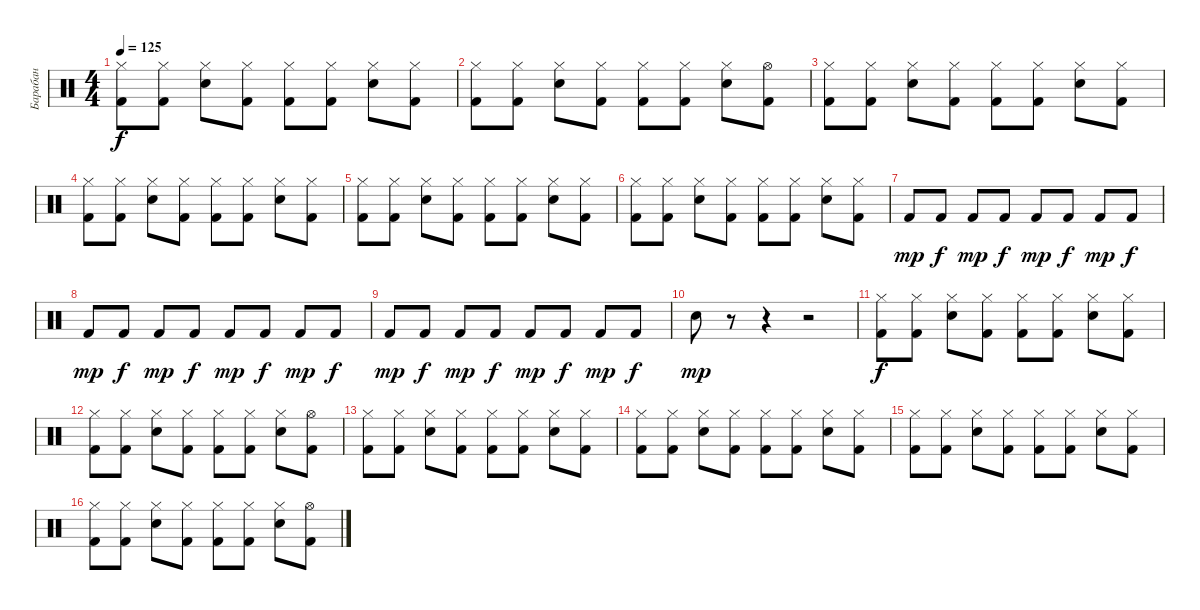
\track ("Барабан" "Барабан") {instrument percussion}
\staff {score}
\articulation defaults
\ts (4 4)
\tempo 125
\clef neutral
\ks c
("Kick (hit) 2" "Hi-Hat (closed)").8{dy f} ("Kick (hit) 2" "Hi-Hat (closed)").8 ("Electric Snare (hit)" "Hi-Hat (closed)").8 ("Kick (hit) 2" "Hi-Hat (closed)").8 ("Kick (hit) 2" "Hi-Hat (closed)").8 ("Kick (hit) 2" "Hi-Hat (closed)").8 ("Electric Snare (hit)" "Hi-Hat (closed)").8 ("Kick (hit) 2" "Hi-Hat (closed)").8 |
("Kick (hit) 2" "Hi-Hat (closed)").8 ("Kick (hit) 2" "Hi-Hat (closed)").8 ("Electric Snare (hit)" "Hi-Hat (closed)").8 ("Kick (hit) 2" "Hi-Hat (closed)").8 ("Kick (hit) 2" "Hi-Hat (closed)").8 ("Kick (hit) 2" "Hi-Hat (closed)").8 ("Electric Snare (hit)" "Hi-Hat (closed)").8 ("Kick (hit) 2" "Hi-Hat (open)").8 |
("Kick (hit) 2" "Hi-Hat (closed)").8 ("Kick (hit) 2" "Hi-Hat (closed)").8 ("Electric Snare (hit)" "Hi-Hat (closed)").8 ("Kick (hit) 2" "Hi-Hat (closed)").8 ("Kick (hit) 2" "Hi-Hat (closed)").8 ("Kick (hit) 2" "Hi-Hat (closed)").8 ("Electric Snare (hit)" "Hi-Hat (closed)").8 ("Kick (hit) 2" "Hi-Hat (closed)").8 |
("Kick (hit) 2" "Hi-Hat (closed)").8 ("Kick (hit) 2" "Hi-Hat (closed)").8 ("Electric Snare (hit)" "Hi-Hat (closed)").8 ("Kick (hit) 2" "Hi-Hat (closed)").8 ("Kick (hit) 2" "Hi-Hat (closed)").8 ("Kick (hit) 2" "Hi-Hat (closed)").8 ("Electric Snare (hit)" "Hi-Hat (closed)").8 ("Kick (hit) 2" "Hi-Hat (closed)").8 |
("Kick (hit) 2" "Hi-Hat (closed)").8 ("Kick (hit) 2" "Hi-Hat (closed)").8 ("Electric Snare (hit)" "Hi-Hat (closed)").8 ("Kick (hit) 2" "Hi-Hat (closed)").8 ("Kick (hit) 2" "Hi-Hat (closed)").8 ("Kick (hit) 2" "Hi-Hat (closed)").8 ("Electric Snare (hit)" "Hi-Hat (closed)").8 ("Kick (hit) 2" "Hi-Hat (closed)").8 |
("Kick (hit) 2" "Hi-Hat (closed)").8 ("Kick (hit) 2" "Hi-Hat (closed)").8 ("Electric Snare (hit)" "Hi-Hat (closed)").8 ("Kick (hit) 2" "Hi-Hat (closed)").8 ("Kick (hit) 2" "Hi-Hat (closed)").8 ("Kick (hit) 2" "Hi-Hat (closed)").8 ("Electric Snare (hit)" "Hi-Hat (closed)").8 ("Kick (hit) 2" "Hi-Hat (closed)").8 |
"Kick (hit) 2".8{dy mp} "Kick (hit) 2".8{dy f} "Kick (hit) 2".8{dy mp} "Kick (hit) 2".8{dy f} "Kick (hit) 2".8{dy mp} "Kick (hit) 2".8{dy f} "Kick (hit) 2".8{dy mp} "Kick (hit) 2".8{dy f} |
"Kick (hit) 2".8{dy mp} "Kick (hit) 2".8{dy f} "Kick (hit) 2".8{dy mp} "Kick (hit) 2".8{dy f} "Kick (hit) 2".8{dy mp} "Kick (hit) 2".8{dy f} "Kick (hit) 2".8{dy mp} "Kick (hit) 2".8{dy f} |
"Kick (hit) 2".8{dy mp} "Kick (hit) 2".8{dy f} "Kick (hit) 2".8{dy mp} "Kick (hit) 2".8{dy f} "Kick (hit) 2".8{dy mp} "Kick (hit) 2".8{dy f} "Kick (hit) 2".8{dy mp} "Kick (hit) 2".8{dy f} |
"Electric Snare (hit)".8{dy mp} r.8 r.4 r.2 |
("Kick (hit) 2" "Hi-Hat (closed)").8{dy f} ("Kick (hit) 2" "Hi-Hat (closed)").8 ("Electric Snare (hit)" "Hi-Hat (closed)").8 ("Kick (hit) 2" "Hi-Hat (closed)").8 ("Kick (hit) 2" "Hi-Hat (closed)").8 ("Kick (hit) 2" "Hi-Hat (closed)").8 ("Electric Snare (hit)" "Hi-Hat (closed)").8 ("Kick (hit) 2" "Hi-Hat (closed)").8 |
("Kick (hit) 2" "Hi-Hat (closed)").8 ("Kick (hit) 2" "Hi-Hat (closed)").8 ("Electric Snare (hit)" "Hi-Hat (closed)").8 ("Kick (hit) 2" "Hi-Hat (closed)").8 ("Kick (hit) 2" "Hi-Hat (closed)").8 ("Kick (hit) 2" "Hi-Hat (closed)").8 ("Electric Snare (hit)" "Hi-Hat (closed)").8 ("Kick (hit) 2" "Hi-Hat (open)").8 |
("Kick (hit) 2" "Hi-Hat (closed)").8 ("Kick (hit) 2" "Hi-Hat (closed)").8 ("Electric Snare (hit)" "Hi-Hat (closed)").8 ("Kick (hit) 2" "Hi-Hat (closed)").8 ("Kick (hit) 2" "Hi-Hat (closed)").8 ("Kick (hit) 2" "Hi-Hat (closed)").8 ("Electric Snare (hit)" "Hi-Hat (closed)").8 ("Kick (hit) 2" "Hi-Hat (closed)").8 |
("Kick (hit) 2" "Hi-Hat (closed)").8 ("Kick (hit) 2" "Hi-Hat (closed)").8 ("Electric Snare (hit)" "Hi-Hat (closed)").8 ("Kick (hit) 2" "Hi-Hat (closed)").8 ("Kick (hit) 2" "Hi-Hat (closed)").8 ("Kick (hit) 2" "Hi-Hat (closed)").8 ("Electric Snare (hit)" "Hi-Hat (closed)").8 ("Kick (hit) 2" "Hi-Hat (closed)").8 |
("Kick (hit) 2" "Hi-Hat (closed)").8 ("Kick (hit) 2" "Hi-Hat (closed)").8 ("Electric Snare (hit)" "Hi-Hat (closed)").8 ("Kick (hit) 2" "Hi-Hat (closed)").8 ("Kick (hit) 2" "Hi-Hat (closed)").8 ("Kick (hit) 2" "Hi-Hat (closed)").8 ("Electric Snare (hit)" "Hi-Hat (closed)").8 ("Kick (hit) 2" "Hi-Hat (closed)").8 |
("Kick (hit) 2" "Hi-Hat (closed)").8 ("Kick (hit) 2" "Hi-Hat (closed)").8 ("Electric Snare (hit)" "Hi-Hat (closed)").8 ("Kick (hit) 2" "Hi-Hat (closed)").8 ("Kick (hit) 2" "Hi-Hat (closed)").8 ("Kick (hit) 2" "Hi-Hat (closed)").8 ("Electric Snare (hit)" "Hi-Hat (closed)").8 ("Kick (hit) 2" "Hi-Hat (open)").8
